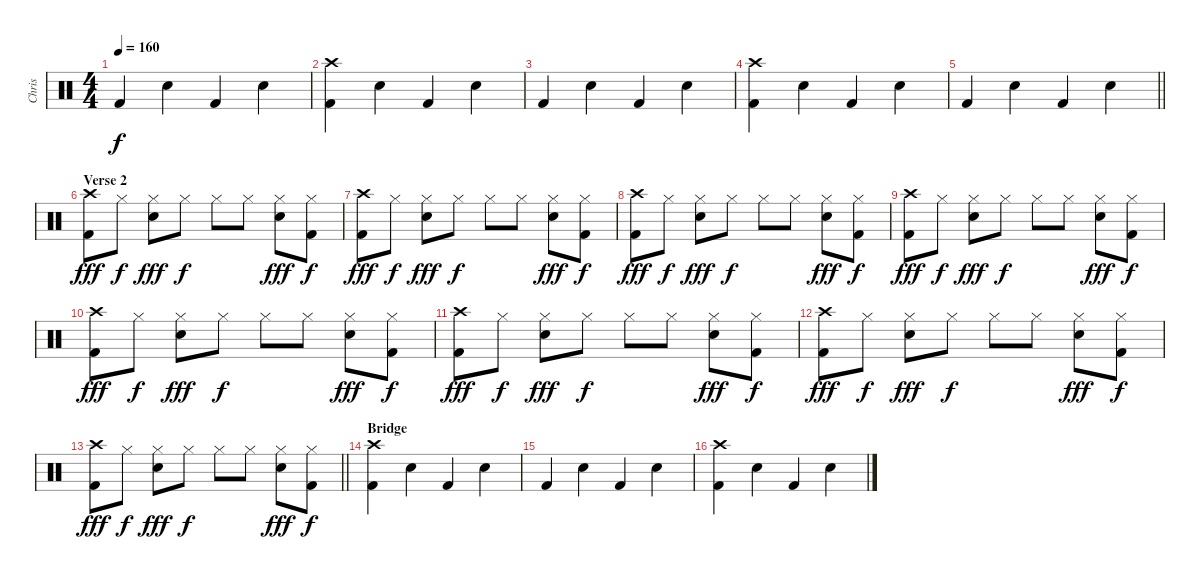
\track ("Chris" "Chris") {instrument percussion}
\staff {score}
\articulation defaults
\ts (4 4)
\tempo 160
\clef neutral
\ks c "Kick (hit) 2".4{dy f} "Electric Snare (hit)".4 "Kick (hit) 2".4 "Electric Snare (hit)".4
|
("Crash high (hit)" "Kick (hit) 2").4 "Electric Snare (hit)".4 "Kick (hit) 2".4 "Electric Snare (hit)".4 |
"Kick (hit) 2".4 "Electric Snare (hit)".4 "Kick (hit) 2".4 "Electric Snare (hit)".4 |
("Crash high (hit)" "Kick (hit) 2").4 "Electric Snare (hit)".4 "Kick (hit) 2".4 "Electric Snare (hit)".4 |
\barLineRight lightlight "Kick (hit) 2".4 "Electric Snare (hit)".4 "Kick (hit) 2".4 "Electric Snare (hit)".4
|
\section ("" "Verse 2")
("Crash high (hit)" "Kick (hit) 2").8{dy fff} "Hi-Hat (closed)".8{dy f} ("Hi-Hat (closed)" "Snare (hit) 2").8{dy fff} "Hi-Hat (closed)".8{dy f} "Hi-Hat (closed)".8 "Hi-Hat (closed)".8 ("Hi-Hat (closed)" "Snare (hit) 2").8{dy fff} ("Hi-Hat (closed)" "Kick (hit) 2").8{dy f} |
("Crash high (hit)" "Kick (hit) 2").8{dy fff} "Hi-Hat (closed)".8{dy f} ("Hi-Hat (closed)" "Snare (hit) 2").8{dy fff} "Hi-Hat (closed)".8{dy f} "Hi-Hat (closed)".8 "Hi-Hat (closed)".8 ("Hi-Hat (closed)" "Snare (hit) 2").8{dy fff} ("Hi-Hat (closed)" "Kick (hit) 2").8{dy f} |
("Crash high (hit)" "Kick (hit) 2").8{dy fff} "Hi-Hat (closed)".8{dy f} ("Hi-Hat (closed)" "Snare (hit) 2").8{dy fff} "Hi-Hat (closed)".8{dy f} "Hi-Hat (closed)".8 "Hi-Hat (closed)".8 ("Hi-Hat (closed)" "Snare (hit) 2").8{dy fff} ("Hi-Hat (closed)" "Kick (hit) 2").8{dy f} |
("Crash high (hit)" "Kick (hit) 2").8{dy fff} "Hi-Hat (closed)".8{dy f} ("Hi-Hat (closed)" "Snare (hit) 2").8{dy fff} "Hi-Hat (closed)".8{dy f} "Hi-Hat (closed)".8 "Hi-Hat (closed)".8 ("Hi-Hat (closed)" "Snare (hit) 2").8{dy fff} ("Hi-Hat (closed)" "Kick (hit) 2").8{dy f} |
("Crash high (hit)" "Kick (hit) 2").8{dy fff} "Hi-Hat (closed)".8{dy f} ("Hi-Hat (closed)" "Snare (hit) 2").8{dy fff} "Hi-Hat (closed)".8{dy f} "Hi-Hat (closed)".8 "Hi-Hat (closed)".8 ("Hi-Hat (closed)" "Snare (hit) 2").8{dy fff} ("Hi-Hat (closed)" "Kick (hit) 2").8{dy f} |
("Crash high (hit)" "Kick (hit) 2").8{dy fff} "Hi-Hat (closed)".8{dy f} ("Hi-Hat (closed)" "Snare (hit) 2").8{dy fff} "Hi-Hat (closed)".8{dy f} "Hi-Hat (closed)".8 "Hi-Hat (closed)".8 ("Hi-Hat (closed)" "Snare (hit) 2").8{dy fff} ("Hi-Hat (closed)" "Kick (hit) 2").8{dy f} |
("Crash high (hit)" "Kick (hit) 2").8{dy fff} "Hi-Hat (closed)".8{dy f} ("Hi-Hat (closed)" "Snare (hit) 2").8{dy fff} "Hi-Hat (closed)".8{dy f} "Hi-Hat (closed)".8 "Hi-Hat (closed)".8 ("Hi-Hat (closed)" "Snare (hit) 2").8{dy fff} ("Hi-Hat (closed)" "Kick (hit) 2").8{dy f} |
\barLineRight lightlight
("Crash high (hit)" "Kick (hit) 2").8{dy fff} "Hi-Hat (closed)".8{dy f} ("Hi-Hat (closed)" "Snare (hit) 2").8{dy fff} "Hi-Hat (closed)".8{dy f} "Hi-Hat (closed)".8 "Hi-Hat (closed)".8 ("Hi-Hat (closed)" "Snare (hit) 2").8{dy fff} ("Hi-Hat (closed)" "Kick (hit) 2").8{dy f} |
\section ("" "Bridge")
("Crash high (hit)" "Kick (hit) 2").4 "Electric Snare (hit)".4 "Kick (hit) 2".4 "Electric Snare (hit)".4 |
"Kick (hit) 2".4 "Electric Snare (hit)".4 "Kick (hit) 2".4 "Electric Snare (hit)".4 |
("Crash high (hit)" "Kick (hit) 2").4 "Electric Snare (hit)".4 "Kick (hit) 2".4 "Electric Snare (hit)".4
